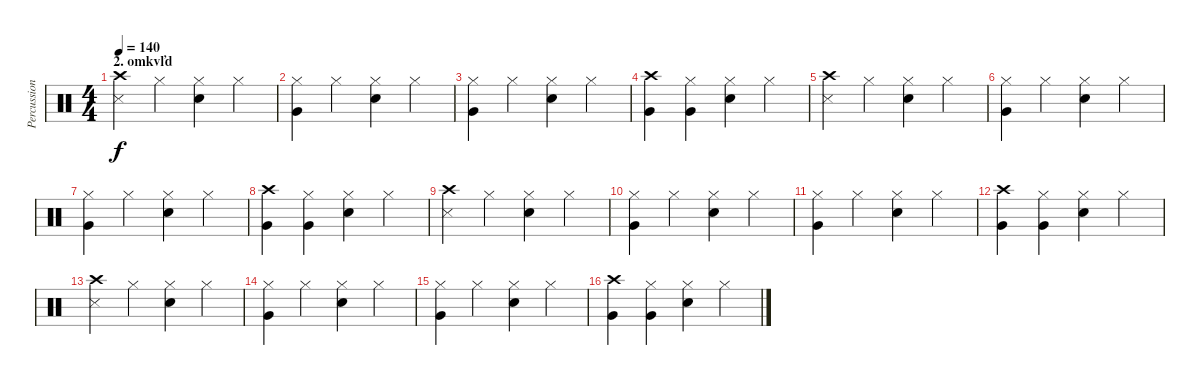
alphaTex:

\track ("Percussion" "Percussion") {instrument percussion}
\staff {score}
\articulation defaults
\ts (4 4)
\section ("" "2. omkvľd")
\tempo 140
\clef neutral
\ks c
("Crash high (hit)" "Metronome (hit)").4{dy f} "Hi-Hat (closed)".4 ("Hi-Hat (closed)" "Electric Snare (hit)").4 "Hi-Hat (closed)".4 |
("Hi-Hat (closed)" "Very Low Tom (hit)").4 "Hi-Hat (closed)".4 ("Hi-Hat (closed)" "Electric Snare (hit)").4 "Hi-Hat (closed)".4 |
("Hi-Hat (closed)" "Very Low Tom (hit)").4 "Hi-Hat (closed)".4 ("Hi-Hat (closed)" "Electric Snare (hit)").4 "Hi-Hat (closed)".4 |
("Crash high (hit)" "Very Low Tom (hit)").4 ("Hi-Hat (closed)" "Very Low Tom (hit)").4 ("Hi-Hat (closed)" "Electric Snare (hit)").4 "Hi-Hat (closed)".4 |
("Crash high (hit)" "Metronome (hit)").4 "Hi-Hat (closed)".4 ("Hi-Hat (closed)" "Electric Snare (hit)").4 "Hi-Hat (closed)".4 |
("Hi-Hat (closed)" "Very Low Tom (hit)").4 "Hi-Hat (closed)".4 ("Hi-Hat (closed)" "Electric Snare (hit)").4 "Hi-Hat (closed)".4 |
("Hi-Hat (closed)" "Very Low Tom (hit)").4 "Hi-Hat (closed)".4 ("Hi-Hat (closed)" "Electric Snare (hit)").4 "Hi-Hat (closed)".4 |
("Crash high (hit)" "Very Low Tom (hit)").4 ("Hi-Hat (closed)" "Very Low Tom (hit)").4 ("Hi-Hat (closed)" "Electric Snare (hit)").4 "Hi-Hat (closed)".4 |
("Crash high (hit)" "Metronome (hit)").4 "Hi-Hat (closed)".4 ("Hi-Hat (closed)" "Electric Snare (hit)").4 "Hi-Hat (closed)".4 |
("Hi-Hat (closed)" "Very Low Tom (hit)").4 "Hi-Hat (closed)".4 ("Hi-Hat (closed)" "Electric Snare (hit)").4 "Hi-Hat (closed)".4 |
("Hi-Hat (closed)" "Very Low Tom (hit)").4 "Hi-Hat (closed)".4 ("Hi-Hat (closed)" "Electric Snare (hit)").4 "Hi-Hat (closed)".4 |
("Crash high (hit)" "Very Low Tom (hit)").4 ("Hi-Hat (closed)" "Very Low Tom (hit)").4 ("Hi-Hat (closed)" "Electric Snare (hit)").4 "Hi-Hat (closed)".4 |
("Crash high (hit)" "Metronome (hit)").4 "Hi-Hat (closed)".4 ("Hi-Hat (closed)" "Electric Snare (hit)").4 "Hi-Hat (closed)".4 |
("Hi-Hat (closed)" "Very Low Tom (hit)").4 "Hi-Hat (closed)".4 ("Hi-Hat (closed)" "Electric Snare (hit)").4 "Hi-Hat (closed)".4 |
("Hi-Hat (closed)" "Very Low Tom (hit)").4 "Hi-Hat (closed)".4 ("Hi-Hat (closed)" "Electric Snare (hit)").4 "Hi-Hat (closed)".4 |
("Crash high (hit)" "Very Low Tom (hit)").4 ("Hi-Hat (closed)" "Very Low Tom (hit)").4 ("Hi-Hat (closed)" "Electric Snare (hit)").4 "Hi-Hat (closed)".4
